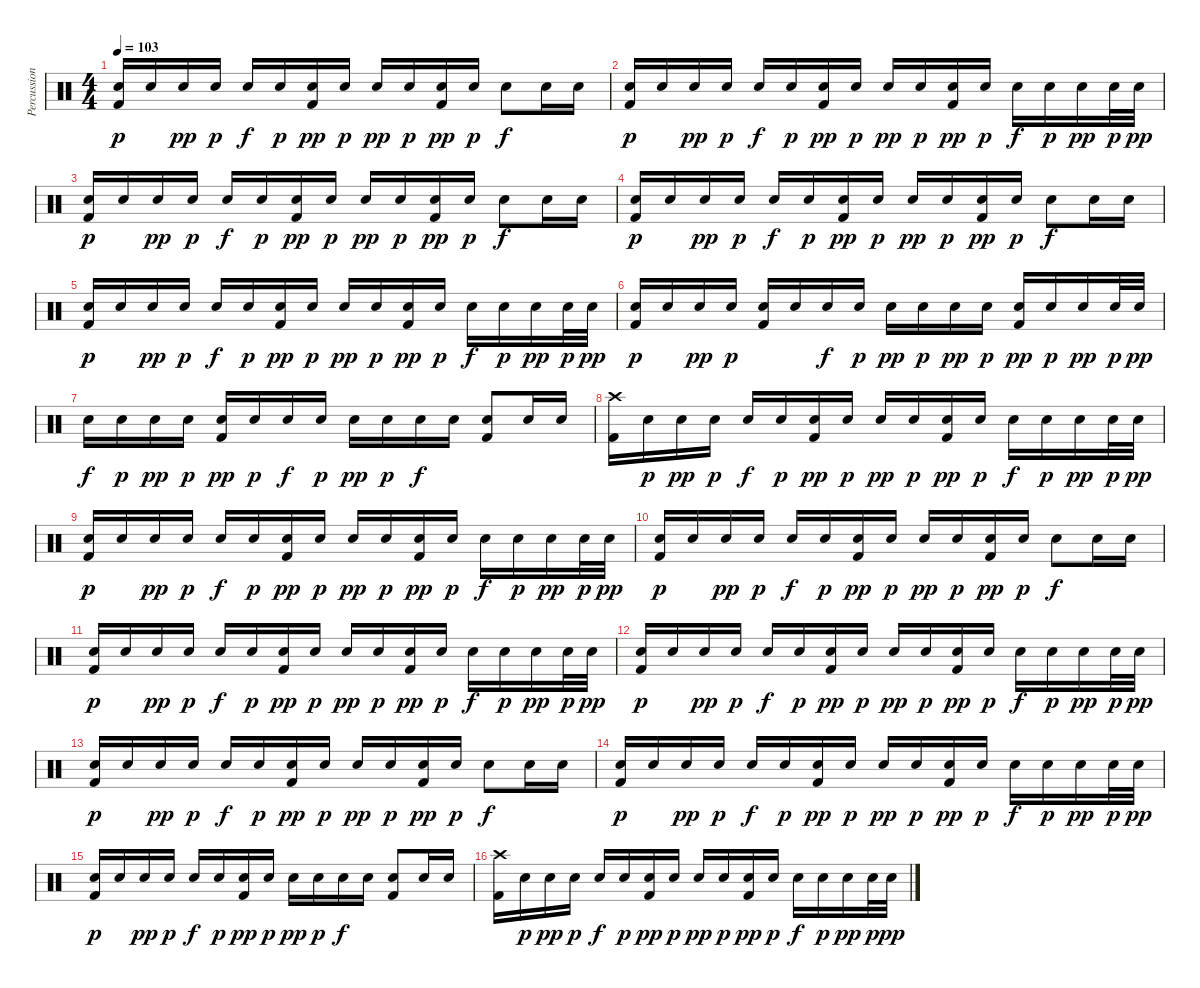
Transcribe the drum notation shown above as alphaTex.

\track ("Percussion" "Percussion") {instrument percussion}
\staff {score}
\articulation defaults
\ts (4 4)
\tempo 103
\clef neutral
\ks c
("Electric Snare (hit)" "Kick (hit) 2").16{dy p} "Electric Snare (hit)".16 "Electric Snare (hit)".16{dy pp} "Electric Snare (hit)".16{dy p} "Electric Snare (hit)".16{dy f} "Electric Snare (hit)".16{dy p} ("Electric Snare (hit)" "Kick (hit) 2").16{dy pp} "Electric Snare (hit)".16{dy p} "Electric Snare (hit)".16{dy pp} "Electric Snare (hit)".16{dy p} ("Electric Snare (hit)" "Kick (hit) 2").16{dy pp} "Electric Snare (hit)".16{dy p} "Electric Snare (hit)".8{dy f} "Electric Snare (hit)".16 "Electric Snare (hit)".16 |
("Electric Snare (hit)" "Kick (hit) 2").16{dy p} "Electric Snare (hit)".16 "Electric Snare (hit)".16{dy pp} "Electric Snare (hit)".16{dy p} "Electric Snare (hit)".16{dy f} "Electric Snare (hit)".16{dy p} ("Electric Snare (hit)" "Kick (hit) 2").16{dy pp} "Electric Snare (hit)".16{dy p} "Electric Snare (hit)".16{dy pp} "Electric Snare (hit)".16{dy p} ("Electric Snare (hit)" "Kick (hit) 2").16{dy pp} "Electric Snare (hit)".16{dy p} "Electric Snare (hit)".16{dy f} "Electric Snare (hit)".16{dy p} "Electric Snare (hit)".16{dy pp} "Electric Snare (hit)".32{dy p} "Electric Snare (hit)".32{dy pp} |
("Electric Snare (hit)" "Kick (hit) 2").16{dy p} "Electric Snare (hit)".16 "Electric Snare (hit)".16{dy pp} "Electric Snare (hit)".16{dy p} "Electric Snare (hit)".16{dy f} "Electric Snare (hit)".16{dy p} ("Electric Snare (hit)" "Kick (hit) 2").16{dy pp} "Electric Snare (hit)".16{dy p} "Electric Snare (hit)".16{dy pp} "Electric Snare (hit)".16{dy p} ("Electric Snare (hit)" "Kick (hit) 2").16{dy pp} "Electric Snare (hit)".16{dy p} "Electric Snare (hit)".8{dy f} "Electric Snare (hit)".16 "Electric Snare (hit)".16 |
("Electric Snare (hit)" "Kick (hit) 2").16{dy p} "Electric Snare (hit)".16 "Electric Snare (hit)".16{dy pp} "Electric Snare (hit)".16{dy p} "Electric Snare (hit)".16{dy f} "Electric Snare (hit)".16{dy p} ("Electric Snare (hit)" "Kick (hit) 2").16{dy pp} "Electric Snare (hit)".16{dy p} "Electric Snare (hit)".16{dy pp} "Electric Snare (hit)".16{dy p} ("Electric Snare (hit)" "Kick (hit) 2").16{dy pp} "Electric Snare (hit)".16{dy p} "Electric Snare (hit)".8{dy f} "Electric Snare (hit)".16 "Electric Snare (hit)".16 |
("Electric Snare (hit)" "Kick (hit) 2").16{dy p} "Electric Snare (hit)".16 "Electric Snare (hit)".16{dy pp} "Electric Snare (hit)".16{dy p} "Electric Snare (hit)".16{dy f} "Electric Snare (hit)".16{dy p} ("Electric Snare (hit)" "Kick (hit) 2").16{dy pp} "Electric Snare (hit)".16{dy p} "Electric Snare (hit)".16{dy pp} "Electric Snare (hit)".16{dy p} ("Electric Snare (hit)" "Kick (hit) 2").16{dy pp} "Electric Snare (hit)".16{dy p} "Electric Snare (hit)".16{dy f} "Electric Snare (hit)".16{dy p} "Electric Snare (hit)".16{dy pp} "Electric Snare (hit)".32{dy p} "Electric Snare (hit)".32{dy pp} |
("Electric Snare (hit)" "Kick (hit) 2").16{dy p} "Electric Snare (hit)".16 "Electric Snare (hit)".16{dy pp} "Electric Snare (hit)".16{dy p} ("Electric Snare (hit)" "Kick (hit) 2").16 "Electric Snare (hit)".16 "Electric Snare (hit)".16{dy f} "Electric Snare (hit)".16{dy p} "Electric Snare (hit)".16{dy pp} "Electric Snare (hit)".16{dy p} "Electric Snare (hit)".16{dy pp} "Electric Snare (hit)".16{dy p} ("Electric Snare (hit)" "Kick (hit) 2").16{dy pp} "Electric Snare (hit)".16{dy p} "Electric Snare (hit)".16{dy pp} "Electric Snare (hit)".32{dy p} "Electric Snare (hit)".32{dy pp} |
"Electric Snare (hit)".16{dy f} "Electric Snare (hit)".16{dy p} "Electric Snare (hit)".16{dy pp} "Electric Snare (hit)".16{dy p} ("Electric Snare (hit)" "Kick (hit) 2").16{dy pp} "Electric Snare (hit)".16{dy p} "Electric Snare (hit)".16{dy f} "Electric Snare (hit)".16{dy p} "Electric Snare (hit)".16{dy pp} "Electric Snare (hit)".16{dy p} "Electric Snare (hit)".16{dy f} "Electric Snare (hit)".16 ("Electric Snare (hit)" "Kick (hit) 2").8 "Electric Snare (hit)".16 "Electric Snare (hit)".16 |
("Crash high (hit)" "Kick (hit) 2").16 "Electric Snare (hit)".16{dy p} "Electric Snare (hit)".16{dy pp} "Electric Snare (hit)".16{dy p} "Electric Snare (hit)".16{dy f} "Electric Snare (hit)".16{dy p} ("Electric Snare (hit)" "Kick (hit) 2").16{dy pp} "Electric Snare (hit)".16{dy p} "Electric Snare (hit)".16{dy pp} "Electric Snare (hit)".16{dy p} ("Electric Snare (hit)" "Kick (hit) 2").16{dy pp} "Electric Snare (hit)".16{dy p} "Electric Snare (hit)".16{dy f} "Electric Snare (hit)".16{dy p} "Electric Snare (hit)".16{dy pp} "Electric Snare (hit)".32{dy p} "Electric Snare (hit)".32{dy pp} |
("Electric Snare (hit)" "Kick (hit) 2").16{dy p} "Electric Snare (hit)".16 "Electric Snare (hit)".16{dy pp} "Electric Snare (hit)".16{dy p} "Electric Snare (hit)".16{dy f} "Electric Snare (hit)".16{dy p} ("Electric Snare (hit)" "Kick (hit) 2").16{dy pp} "Electric Snare (hit)".16{dy p} "Electric Snare (hit)".16{dy pp} "Electric Snare (hit)".16{dy p} ("Electric Snare (hit)" "Kick (hit) 2").16{dy pp} "Electric Snare (hit)".16{dy p} "Electric Snare (hit)".16{dy f} "Electric Snare (hit)".16{dy p} "Electric Snare (hit)".16{dy pp} "Electric Snare (hit)".32{dy p} "Electric Snare (hit)".32{dy pp} |
("Electric Snare (hit)" "Kick (hit) 2").16{dy p} "Electric Snare (hit)".16 "Electric Snare (hit)".16{dy pp} "Electric Snare (hit)".16{dy p} "Electric Snare (hit)".16{dy f} "Electric Snare (hit)".16{dy p} ("Electric Snare (hit)" "Kick (hit) 2").16{dy pp} "Electric Snare (hit)".16{dy p} "Electric Snare (hit)".16{dy pp} "Electric Snare (hit)".16{dy p} ("Electric Snare (hit)" "Kick (hit) 2").16{dy pp} "Electric Snare (hit)".16{dy p} "Electric Snare (hit)".8{dy f} "Electric Snare (hit)".16 "Electric Snare (hit)".16 |
("Electric Snare (hit)" "Kick (hit) 2").16{dy p} "Electric Snare (hit)".16 "Electric Snare (hit)".16{dy pp} "Electric Snare (hit)".16{dy p} "Electric Snare (hit)".16{dy f} "Electric Snare (hit)".16{dy p} ("Electric Snare (hit)" "Kick (hit) 2").16{dy pp} "Electric Snare (hit)".16{dy p} "Electric Snare (hit)".16{dy pp} "Electric Snare (hit)".16{dy p} ("Electric Snare (hit)" "Kick (hit) 2").16{dy pp} "Electric Snare (hit)".16{dy p} "Electric Snare (hit)".16{dy f} "Electric Snare (hit)".16{dy p} "Electric Snare (hit)".16{dy pp} "Electric Snare (hit)".32{dy p} "Electric Snare (hit)".32{dy pp} |
("Electric Snare (hit)" "Kick (hit) 2").16{dy p} "Electric Snare (hit)".16 "Electric Snare (hit)".16{dy pp} "Electric Snare (hit)".16{dy p} "Electric Snare (hit)".16{dy f} "Electric Snare (hit)".16{dy p} ("Electric Snare (hit)" "Kick (hit) 2").16{dy pp} "Electric Snare (hit)".16{dy p} "Electric Snare (hit)".16{dy pp} "Electric Snare (hit)".16{dy p} ("Electric Snare (hit)" "Kick (hit) 2").16{dy pp} "Electric Snare (hit)".16{dy p} "Electric Snare (hit)".16{dy f} "Electric Snare (hit)".16{dy p} "Electric Snare (hit)".16{dy pp} "Electric Snare (hit)".32{dy p} "Electric Snare (hit)".32{dy pp} |
("Electric Snare (hit)" "Kick (hit) 2").16{dy p} "Electric Snare (hit)".16 "Electric Snare (hit)".16{dy pp} "Electric Snare (hit)".16{dy p} "Electric Snare (hit)".16{dy f} "Electric Snare (hit)".16{dy p} ("Electric Snare (hit)" "Kick (hit) 2").16{dy pp} "Electric Snare (hit)".16{dy p} "Electric Snare (hit)".16{dy pp} "Electric Snare (hit)".16{dy p} ("Electric Snare (hit)" "Kick (hit) 2").16{dy pp} "Electric Snare (hit)".16{dy p} "Electric Snare (hit)".8{dy f} "Electric Snare (hit)".16 "Electric Snare (hit)".16 |
("Electric Snare (hit)" "Kick (hit) 2").16{dy p} "Electric Snare (hit)".16 "Electric Snare (hit)".16{dy pp} "Electric Snare (hit)".16{dy p} "Electric Snare (hit)".16{dy f} "Electric Snare (hit)".16{dy p} ("Electric Snare (hit)" "Kick (hit) 2").16{dy pp} "Electric Snare (hit)".16{dy p} "Electric Snare (hit)".16{dy pp} "Electric Snare (hit)".16{dy p} ("Electric Snare (hit)" "Kick (hit) 2").16{dy pp} "Electric Snare (hit)".16{dy p} "Electric Snare (hit)".16{dy f} "Electric Snare (hit)".16{dy p} "Electric Snare (hit)".16{dy pp} "Electric Snare (hit)".32{dy p} "Electric Snare (hit)".32{dy pp} |
("Electric Snare (hit)" "Kick (hit) 2").16{dy p} "Electric Snare (hit)".16 "Electric Snare (hit)".16{dy pp} "Electric Snare (hit)".16{dy p} "Electric Snare (hit)".16{dy f} "Electric Snare (hit)".16{dy p} ("Electric Snare (hit)" "Kick (hit) 2").16{dy pp} "Electric Snare (hit)".16{dy p} "Electric Snare (hit)".16{dy pp} "Electric Snare (hit)".16{dy p} "Electric Snare (hit)".16{dy f} "Electric Snare (hit)".16 ("Electric Snare (hit)" "Kick (hit) 2").8 "Electric Snare (hit)".16 "Electric Snare (hit)".16 |
("Crash high (hit)" "Kick (hit) 2").16 "Electric Snare (hit)".16{dy p} "Electric Snare (hit)".16{dy pp} "Electric Snare (hit)".16{dy p} "Electric Snare (hit)".16{dy f} "Electric Snare (hit)".16{dy p} ("Electric Snare (hit)" "Kick (hit) 2").16{dy pp} "Electric Snare (hit)".16{dy p} "Electric Snare (hit)".16{dy pp} "Electric Snare (hit)".16{dy p} ("Electric Snare (hit)" "Kick (hit) 2").16{dy pp} "Electric Snare (hit)".16{dy p} "Electric Snare (hit)".16{dy f} "Electric Snare (hit)".16{dy p} "Electric Snare (hit)".16{dy pp} "Electric Snare (hit)".32{dy p} "Electric Snare (hit)".32{dy pp}
